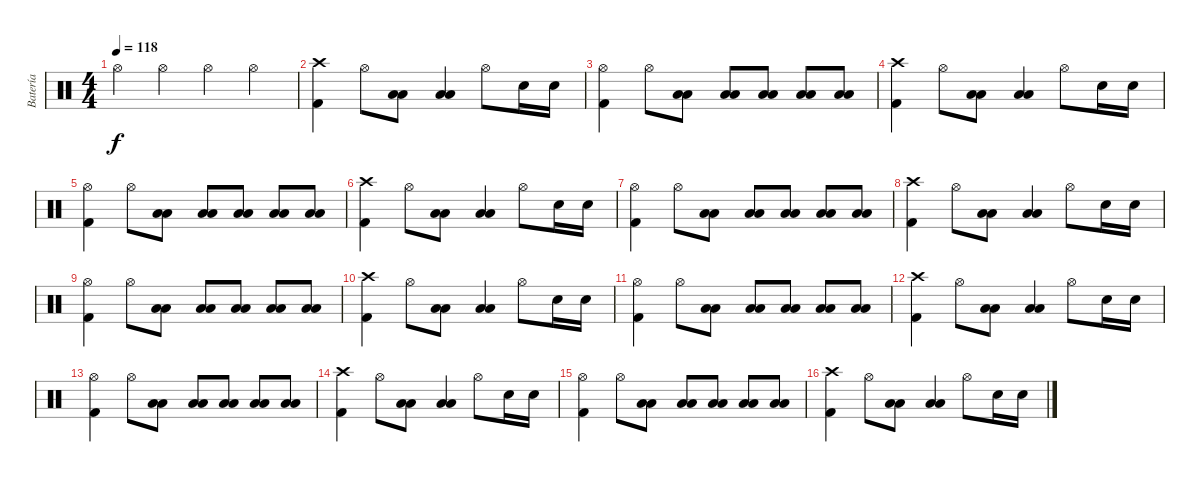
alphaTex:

\track ("Batería" "Batería") {instrument percussion}
\staff {score}
\articulation defaults
\ts (4 4)
\tempo 118
\clef neutral
\ks c "Hi-Hat (open)".4{dy f} "Hi-Hat (open)".4 "Hi-Hat (open)".4 "Hi-Hat (open)".4
|
("Kick (hit) 2" "Crash high (hit)").4 "Hi-Hat (open)".8 ("Low Tom (hit)" "Low Floor Tom (hit)").8 ("Low Tom (hit)" "Low Floor Tom (hit)").4 "Hi-Hat (open)".8 "Electric Snare (hit)".16 "Electric Snare (hit)".16 |
("Kick (hit) 2" "Hi-Hat (open)").4 "Hi-Hat (open)".8 ("Low Tom (hit)" "Low Floor Tom (hit)").8 ("Low Tom (hit)" "Low Floor Tom (hit)").8 ("Low Tom (hit)" "Low Floor Tom (hit)").8 ("Low Tom (hit)" "Low Floor Tom (hit)").8 ("Low Tom (hit)" "Low Floor Tom (hit)").8 |
("Kick (hit) 2" "Crash high (hit)").4 "Hi-Hat (open)".8 ("Low Tom (hit)" "Low Floor Tom (hit)").8 ("Low Tom (hit)" "Low Floor Tom (hit)").4 "Hi-Hat (open)".8 "Electric Snare (hit)".16 "Electric Snare (hit)".16 |
("Kick (hit) 2" "Hi-Hat (open)").4 "Hi-Hat (open)".8 ("Low Tom (hit)" "Low Floor Tom (hit)").8 ("Low Tom (hit)" "Low Floor Tom (hit)").8 ("Low Tom (hit)" "Low Floor Tom (hit)").8 ("Low Tom (hit)" "Low Floor Tom (hit)").8 ("Low Tom (hit)" "Low Floor Tom (hit)").8 |
("Kick (hit) 2" "Crash high (hit)").4 "Hi-Hat (open)".8 ("Low Tom (hit)" "Low Floor Tom (hit)").8 ("Low Tom (hit)" "Low Floor Tom (hit)").4 "Hi-Hat (open)".8 "Electric Snare (hit)".16 "Electric Snare (hit)".16 |
("Kick (hit) 2" "Hi-Hat (open)").4 "Hi-Hat (open)".8 ("Low Tom (hit)" "Low Floor Tom (hit)").8 ("Low Tom (hit)" "Low Floor Tom (hit)").8 ("Low Tom (hit)" "Low Floor Tom (hit)").8 ("Low Tom (hit)" "Low Floor Tom (hit)").8 ("Low Tom (hit)" "Low Floor Tom (hit)").8 |
("Kick (hit) 2" "Crash high (hit)").4 "Hi-Hat (open)".8 ("Low Tom (hit)" "Low Floor Tom (hit)").8 ("Low Tom (hit)" "Low Floor Tom (hit)").4 "Hi-Hat (open)".8 "Electric Snare (hit)".16 "Electric Snare (hit)".16 |
("Kick (hit) 2" "Hi-Hat (open)").4 "Hi-Hat (open)".8 ("Low Tom (hit)" "Low Floor Tom (hit)").8 ("Low Tom (hit)" "Low Floor Tom (hit)").8 ("Low Tom (hit)" "Low Floor Tom (hit)").8 ("Low Tom (hit)" "Low Floor Tom (hit)").8 ("Low Tom (hit)" "Low Floor Tom (hit)").8 |
("Kick (hit) 2" "Crash high (hit)").4 "Hi-Hat (open)".8 ("Low Tom (hit)" "Low Floor Tom (hit)").8 ("Low Tom (hit)" "Low Floor Tom (hit)").4 "Hi-Hat (open)".8 "Electric Snare (hit)".16 "Electric Snare (hit)".16 |
("Kick (hit) 2" "Hi-Hat (open)").4 "Hi-Hat (open)".8 ("Low Tom (hit)" "Low Floor Tom (hit)").8 ("Low Tom (hit)" "Low Floor Tom (hit)").8 ("Low Tom (hit)" "Low Floor Tom (hit)").8 ("Low Tom (hit)" "Low Floor Tom (hit)").8 ("Low Tom (hit)" "Low Floor Tom (hit)").8 |
("Kick (hit) 2" "Crash high (hit)").4 "Hi-Hat (open)".8 ("Low Tom (hit)" "Low Floor Tom (hit)").8 ("Low Tom (hit)" "Low Floor Tom (hit)").4 "Hi-Hat (open)".8 "Electric Snare (hit)".16 "Electric Snare (hit)".16 |
("Kick (hit) 2" "Hi-Hat (open)").4 "Hi-Hat (open)".8 ("Low Tom (hit)" "Low Floor Tom (hit)").8 ("Low Tom (hit)" "Low Floor Tom (hit)").8 ("Low Tom (hit)" "Low Floor Tom (hit)").8 ("Low Tom (hit)" "Low Floor Tom (hit)").8 ("Low Tom (hit)" "Low Floor Tom (hit)").8 |
("Kick (hit) 2" "Crash high (hit)").4 "Hi-Hat (open)".8 ("Low Tom (hit)" "Low Floor Tom (hit)").8 ("Low Tom (hit)" "Low Floor Tom (hit)").4 "Hi-Hat (open)".8 "Electric Snare (hit)".16 "Electric Snare (hit)".16 |
("Kick (hit) 2" "Hi-Hat (open)").4 "Hi-Hat (open)".8 ("Low Tom (hit)" "Low Floor Tom (hit)").8 ("Low Tom (hit)" "Low Floor Tom (hit)").8 ("Low Tom (hit)" "Low Floor Tom (hit)").8 ("Low Tom (hit)" "Low Floor Tom (hit)").8 ("Low Tom (hit)" "Low Floor Tom (hit)").8 |
("Kick (hit) 2" "Crash high (hit)").4 "Hi-Hat (open)".8 ("Low Tom (hit)" "Low Floor Tom (hit)").8 ("Low Tom (hit)" "Low Floor Tom (hit)").4 "Hi-Hat (open)".8 "Electric Snare (hit)".16 "Electric Snare (hit)".16
